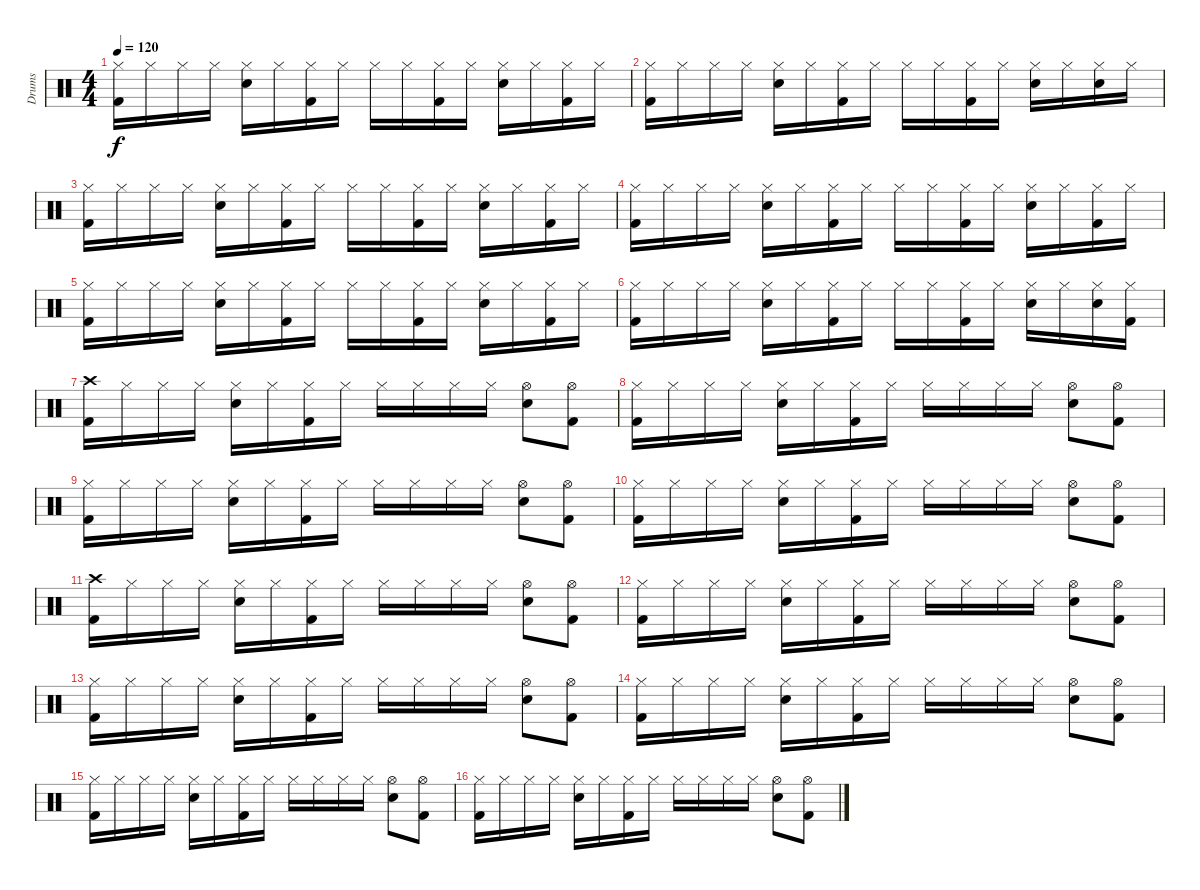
\track ("Drums" "Drums") {instrument percussion}
\staff {score}
\articulation defaults
\ts (4 4)
\tempo 120
\clef neutral
\ks c
("Hi-Hat (closed)" "Kick (hit) 2").16{dy f} "Hi-Hat (closed)".16 "Hi-Hat (closed)".16 "Hi-Hat (closed)".16 ("Hi-Hat (closed)" "Snare (hit) 2").16 "Hi-Hat (closed)".16 ("Hi-Hat (closed)" "Kick (hit) 2").16 "Hi-Hat (closed)".16 "Hi-Hat (closed)".16 "Hi-Hat (closed)".16 ("Hi-Hat (closed)" "Kick (hit) 2").16 "Hi-Hat (closed)".16 ("Hi-Hat (closed)" "Snare (hit) 2").16 "Hi-Hat (closed)".16 ("Hi-Hat (closed)" "Kick (hit) 2").16 "Hi-Hat (closed)".16 |
("Hi-Hat (closed)" "Kick (hit) 2").16 "Hi-Hat (closed)".16 "Hi-Hat (closed)".16 "Hi-Hat (closed)".16 ("Hi-Hat (closed)" "Snare (hit) 2").16 "Hi-Hat (closed)".16 ("Hi-Hat (closed)" "Kick (hit) 2").16 "Hi-Hat (closed)".16 "Hi-Hat (closed)".16 "Hi-Hat (closed)".16 ("Hi-Hat (closed)" "Kick (hit) 2").16 "Hi-Hat (closed)".16 ("Hi-Hat (closed)" "Snare (hit) 2").16 "Hi-Hat (closed)".16 ("Hi-Hat (closed)" "Snare (hit) 2").16 "Hi-Hat (closed)".16 |
("Hi-Hat (closed)" "Kick (hit) 2").16 "Hi-Hat (closed)".16 "Hi-Hat (closed)".16 "Hi-Hat (closed)".16 ("Hi-Hat (closed)" "Snare (hit) 2").16 "Hi-Hat (closed)".16 ("Hi-Hat (closed)" "Kick (hit) 2").16 "Hi-Hat (closed)".16 "Hi-Hat (closed)".16 "Hi-Hat (closed)".16 ("Hi-Hat (closed)" "Kick (hit) 2").16 "Hi-Hat (closed)".16 ("Hi-Hat (closed)" "Snare (hit) 2").16 "Hi-Hat (closed)".16 ("Hi-Hat (closed)" "Kick (hit) 2").16 "Hi-Hat (closed)".16 |
("Hi-Hat (closed)" "Kick (hit) 2").16 "Hi-Hat (closed)".16 "Hi-Hat (closed)".16 "Hi-Hat (closed)".16 ("Hi-Hat (closed)" "Snare (hit) 2").16 "Hi-Hat (closed)".16 ("Hi-Hat (closed)" "Kick (hit) 2").16 "Hi-Hat (closed)".16 "Hi-Hat (closed)".16 "Hi-Hat (closed)".16 ("Hi-Hat (closed)" "Kick (hit) 2").16 "Hi-Hat (closed)".16 ("Hi-Hat (closed)" "Snare (hit) 2").16 "Hi-Hat (closed)".16 ("Hi-Hat (closed)" "Kick (hit) 2").16 "Hi-Hat (closed)".16 |
("Hi-Hat (closed)" "Kick (hit) 2").16 "Hi-Hat (closed)".16 "Hi-Hat (closed)".16 "Hi-Hat (closed)".16 ("Hi-Hat (closed)" "Snare (hit) 2").16 "Hi-Hat (closed)".16 ("Hi-Hat (closed)" "Kick (hit) 2").16 "Hi-Hat (closed)".16 "Hi-Hat (closed)".16 "Hi-Hat (closed)".16 ("Hi-Hat (closed)" "Kick (hit) 2").16 "Hi-Hat (closed)".16 ("Hi-Hat (closed)" "Snare (hit) 2").16 "Hi-Hat (closed)".16 ("Hi-Hat (closed)" "Kick (hit) 2").16 "Hi-Hat (closed)".16 |
("Hi-Hat (closed)" "Kick (hit) 2").16 "Hi-Hat (closed)".16 "Hi-Hat (closed)".16 "Hi-Hat (closed)".16 ("Hi-Hat (closed)" "Snare (hit) 2").16 "Hi-Hat (closed)".16 ("Hi-Hat (closed)" "Kick (hit) 2").16 "Hi-Hat (closed)".16 "Hi-Hat (closed)".16 "Hi-Hat (closed)".16 ("Hi-Hat (closed)" "Kick (hit) 2").16 "Hi-Hat (closed)".16 ("Hi-Hat (closed)" "Snare (hit) 2").16 "Hi-Hat (closed)".16 ("Hi-Hat (closed)" "Snare (hit) 2").16 ("Hi-Hat (closed)" "Kick (hit) 2").16 |
("Crash high (hit)" "Kick (hit) 2").16 "Hi-Hat (closed)".16 "Hi-Hat (closed)".16 "Hi-Hat (closed)".16 ("Hi-Hat (closed)" "Snare (hit) 2").16 "Hi-Hat (closed)".16 ("Hi-Hat (closed)" "Kick (hit) 2").16 "Hi-Hat (closed)".16 "Hi-Hat (closed)".16 "Hi-Hat (closed)".16 "Hi-Hat (closed)".16 "Hi-Hat (closed)".16 ("Hi-Hat (open)" "Snare (hit) 2").8 ("Hi-Hat (open)" "Kick (hit) 2").8 |
("Hi-Hat (closed)" "Kick (hit) 2").16 "Hi-Hat (closed)".16 "Hi-Hat (closed)".16 "Hi-Hat (closed)".16 ("Hi-Hat (closed)" "Snare (hit) 2").16 "Hi-Hat (closed)".16 ("Hi-Hat (closed)" "Kick (hit) 2").16 "Hi-Hat (closed)".16 "Hi-Hat (closed)".16 "Hi-Hat (closed)".16 "Hi-Hat (closed)".16 "Hi-Hat (closed)".16 ("Hi-Hat (open)" "Snare (hit) 2").8 ("Hi-Hat (open)" "Kick (hit) 2").8 |
("Hi-Hat (closed)" "Kick (hit) 2").16 "Hi-Hat (closed)".16 "Hi-Hat (closed)".16 "Hi-Hat (closed)".16 ("Hi-Hat (closed)" "Snare (hit) 2").16 "Hi-Hat (closed)".16 ("Hi-Hat (closed)" "Kick (hit) 2").16 "Hi-Hat (closed)".16 "Hi-Hat (closed)".16 "Hi-Hat (closed)".16 "Hi-Hat (closed)".16 "Hi-Hat (closed)".16 ("Hi-Hat (open)" "Snare (hit) 2").8 ("Hi-Hat (open)" "Kick (hit) 2").8 |
("Hi-Hat (closed)" "Kick (hit) 2").16 "Hi-Hat (closed)".16 "Hi-Hat (closed)".16 "Hi-Hat (closed)".16 ("Hi-Hat (closed)" "Snare (hit) 2").16 "Hi-Hat (closed)".16 ("Hi-Hat (closed)" "Kick (hit) 2").16 "Hi-Hat (closed)".16 "Hi-Hat (closed)".16 "Hi-Hat (closed)".16 "Hi-Hat (closed)".16 "Hi-Hat (closed)".16 ("Hi-Hat (open)" "Snare (hit) 2").8 ("Hi-Hat (open)" "Kick (hit) 2").8 |
("Crash high (hit)" "Kick (hit) 2").16 "Hi-Hat (closed)".16 "Hi-Hat (closed)".16 "Hi-Hat (closed)".16 ("Hi-Hat (closed)" "Snare (hit) 2").16 "Hi-Hat (closed)".16 ("Hi-Hat (closed)" "Kick (hit) 2").16 "Hi-Hat (closed)".16 "Hi-Hat (closed)".16 "Hi-Hat (closed)".16 "Hi-Hat (closed)".16 "Hi-Hat (closed)".16 ("Hi-Hat (open)" "Snare (hit) 2").8 ("Hi-Hat (open)" "Kick (hit) 2").8 |
("Hi-Hat (closed)" "Kick (hit) 2").16 "Hi-Hat (closed)".16 "Hi-Hat (closed)".16 "Hi-Hat (closed)".16 ("Hi-Hat (closed)" "Snare (hit) 2").16 "Hi-Hat (closed)".16 ("Hi-Hat (closed)" "Kick (hit) 2").16 "Hi-Hat (closed)".16 "Hi-Hat (closed)".16 "Hi-Hat (closed)".16 "Hi-Hat (closed)".16 "Hi-Hat (closed)".16 ("Hi-Hat (open)" "Snare (hit) 2").8 ("Hi-Hat (open)" "Kick (hit) 2").8 |
("Hi-Hat (closed)" "Kick (hit) 2").16 "Hi-Hat (closed)".16 "Hi-Hat (closed)".16 "Hi-Hat (closed)".16 ("Hi-Hat (closed)" "Snare (hit) 2").16 "Hi-Hat (closed)".16 ("Hi-Hat (closed)" "Kick (hit) 2").16 "Hi-Hat (closed)".16 "Hi-Hat (closed)".16 "Hi-Hat (closed)".16 "Hi-Hat (closed)".16 "Hi-Hat (closed)".16 ("Hi-Hat (open)" "Snare (hit) 2").8 ("Hi-Hat (open)" "Kick (hit) 2").8 |
("Hi-Hat (closed)" "Kick (hit) 2").16 "Hi-Hat (closed)".16 "Hi-Hat (closed)".16 "Hi-Hat (closed)".16 ("Hi-Hat (closed)" "Snare (hit) 2").16 "Hi-Hat (closed)".16 ("Hi-Hat (closed)" "Kick (hit) 2").16 "Hi-Hat (closed)".16 "Hi-Hat (closed)".16 "Hi-Hat (closed)".16 "Hi-Hat (closed)".16 "Hi-Hat (closed)".16 ("Hi-Hat (open)" "Snare (hit) 2").8 ("Hi-Hat (open)" "Kick (hit) 2").8 |
("Hi-Hat (closed)" "Kick (hit) 2").16 "Hi-Hat (closed)".16 "Hi-Hat (closed)".16 "Hi-Hat (closed)".16 ("Hi-Hat (closed)" "Snare (hit) 2").16 "Hi-Hat (closed)".16 ("Hi-Hat (closed)" "Kick (hit) 2").16 "Hi-Hat (closed)".16 "Hi-Hat (closed)".16 "Hi-Hat (closed)".16 "Hi-Hat (closed)".16 "Hi-Hat (closed)".16 ("Hi-Hat (open)" "Snare (hit) 2").8 ("Hi-Hat (open)" "Kick (hit) 2").8 |
("Hi-Hat (closed)" "Kick (hit) 2").16 "Hi-Hat (closed)".16 "Hi-Hat (closed)".16 "Hi-Hat (closed)".16 ("Hi-Hat (closed)" "Snare (hit) 2").16 "Hi-Hat (closed)".16 ("Hi-Hat (closed)" "Kick (hit) 2").16 "Hi-Hat (closed)".16 "Hi-Hat (closed)".16 "Hi-Hat (closed)".16 "Hi-Hat (closed)".16 "Hi-Hat (closed)".16 ("Hi-Hat (open)" "Snare (hit) 2").8 ("Hi-Hat (open)" "Kick (hit) 2").8
